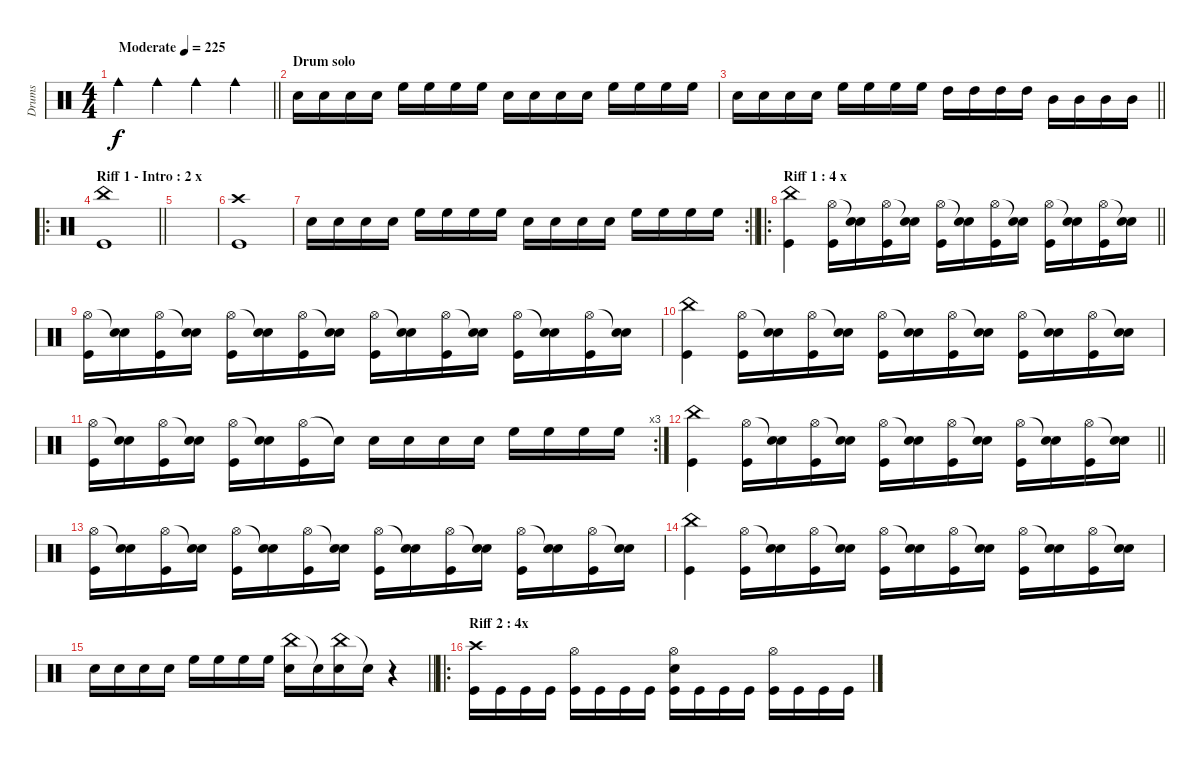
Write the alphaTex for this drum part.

\track ("Drums" "Drums") {instrument percussion}
\staff {score}
\articulation defaults
\ts (4 4)
\tempo (225 "Moderate")
\clef neutral
\barLineRight lightlight
\ks c "Cowbell medium (hit)".4{dy f} "Cowbell medium (hit)".4 "Cowbell medium (hit)".4 "Cowbell medium (hit)".4
|
\section ("" "Drum solo")
"Electric Snare (hit)".16 "Electric Snare (hit)".16 "Electric Snare (hit)".16 "Electric Snare (hit)".16 "High Floor Tom (hit)".16 "High Floor Tom (hit)".16 "High Floor Tom (hit)".16 "High Floor Tom (hit)".16 "Electric Snare (hit)".16 "Electric Snare (hit)".16 "Electric Snare (hit)".16 "Electric Snare (hit)".16 "High Floor Tom (hit)".16 "High Floor Tom (hit)".16 "High Floor Tom (hit)".16 "High Floor Tom (hit)".16 |
\barLineRight lightlight "Electric Snare (hit)".16 "Electric Snare (hit)".16 "Electric Snare (hit)".16 "Electric Snare (hit)".16 "High Floor Tom (hit)".16 "High Floor Tom (hit)".16 "High Floor Tom (hit)".16 "High Floor Tom (hit)".16 "High Tom (hit)".16 "High Tom (hit)".16 "High Tom (hit)".16 "High Tom (hit)".16 "Mid Tom (hit)".16 "Mid Tom (hit)".16 "Mid Tom (hit)".16 "Mid Tom (hit)".16
|
\ro
\section ("" "Riff 1 - Intro : 2 x")
\barLineRight lightlight
("China (hit)" "Kick (hit)").1 |
|
("Crash high (hit)" "Kick (hit)").1 |
\rc 2
\barLineRight lightlight "Electric Snare (hit)".16 "Electric Snare (hit)".16 "Electric Snare (hit)".16 "Electric Snare (hit)".16 "High Floor Tom (hit)".16 "High Floor Tom (hit)".16 "High Floor Tom (hit)".16 "High Floor Tom (hit)".16 "Electric Snare (hit)".16 "Electric Snare (hit)".16 "Electric Snare (hit)".16 "Electric Snare (hit)".16 "High Floor Tom (hit)".16 "High Floor Tom (hit)".16 "High Floor Tom (hit)".16 "High Floor Tom (hit)".16
|
\ro
\section ("" "Riff 1 : 4 x")
\barLineRight lightlight
("China (hit)" "Kick (hit)").4 ("Hi-Hat (open)" "Kick (hit)").16 ("Snare (hit)"{t} "Electric Snare (hit)").16 ("Hi-Hat (open)" "Kick (hit)").16 ("Snare (hit)"{t} "Electric Snare (hit)").16 ("Hi-Hat (open)" "Kick (hit)").16 ("Snare (hit)"{t} "Electric Snare (hit)").16 ("Hi-Hat (open)" "Kick (hit)").16 ("Snare (hit)"{t} "Electric Snare (hit)").16 ("Hi-Hat (open)" "Kick (hit)").16 ("Snare (hit)"{t} "Electric Snare (hit)").16 ("Hi-Hat (open)" "Kick (hit)").16 ("Snare (hit)"{t} "Electric Snare (hit)").16 |
("Hi-Hat (open)" "Kick (hit)").16 ("Snare (hit)"{t} "Electric Snare (hit)").16 ("Hi-Hat (open)" "Kick (hit)").16 ("Snare (hit)"{t} "Electric Snare (hit)").16 ("Hi-Hat (open)" "Kick (hit)").16 ("Snare (hit)"{t} "Electric Snare (hit)").16 ("Hi-Hat (open)" "Kick (hit)").16 ("Snare (hit)"{t} "Electric Snare (hit)").16 ("Hi-Hat (open)" "Kick (hit)").16 ("Snare (hit)"{t} "Electric Snare (hit)").16 ("Hi-Hat (open)" "Kick (hit)").16 ("Snare (hit)"{t} "Electric Snare (hit)").16 ("Hi-Hat (open)" "Kick (hit)").16 ("Snare (hit)"{t} "Electric Snare (hit)").16 ("Hi-Hat (open)" "Kick (hit)").16 ("Snare (hit)"{t} "Electric Snare (hit)").16 |
("China (hit)" "Kick (hit)").4 ("Hi-Hat (open)" "Kick (hit)").16 ("Snare (hit)"{t} "Electric Snare (hit)").16 ("Hi-Hat (open)" "Kick (hit)").16 ("Snare (hit)"{t} "Electric Snare (hit)").16 ("Hi-Hat (open)" "Kick (hit)").16 ("Snare (hit)"{t} "Electric Snare (hit)").16 ("Hi-Hat (open)" "Kick (hit)").16 ("Snare (hit)"{t} "Electric Snare (hit)").16 ("Hi-Hat (open)" "Kick (hit)").16 ("Snare (hit)"{t} "Electric Snare (hit)").16 ("Hi-Hat (open)" "Kick (hit)").16 ("Snare (hit)"{t} "Electric Snare (hit)").16 |
\rc 3
("Hi-Hat (open)" "Kick (hit)").16 ("Snare (hit)"{t} "Electric Snare (hit)").16 ("Hi-Hat (open)" "Kick (hit)").16 ("Snare (hit)"{t} "Electric Snare (hit)").16 ("Hi-Hat (open)" "Kick (hit)").16 ("Snare (hit)"{t} "Electric Snare (hit)").16 ("Hi-Hat (open)" "Kick (hit)").16 "Snare (hit)"{t}.16 "Electric Snare (hit)".16 "Electric Snare (hit)".16 "Electric Snare (hit)".16 "Electric Snare (hit)".16 "High Floor Tom (hit)".16 "High Floor Tom (hit)".16 "High Floor Tom (hit)".16 "High Floor Tom (hit)".16 |
\barLineRight lightlight
("China (hit)" "Kick (hit)").4 ("Hi-Hat (open)" "Kick (hit)").16 ("Snare (hit)"{t} "Electric Snare (hit)").16 ("Hi-Hat (open)" "Kick (hit)").16 ("Snare (hit)"{t} "Electric Snare (hit)").16 ("Hi-Hat (open)" "Kick (hit)").16 ("Snare (hit)"{t} "Electric Snare (hit)").16 ("Hi-Hat (open)" "Kick (hit)").16 ("Snare (hit)"{t} "Electric Snare (hit)").16 ("Hi-Hat (open)" "Kick (hit)").16 ("Snare (hit)"{t} "Electric Snare (hit)").16 ("Hi-Hat (open)" "Kick (hit)").16 ("Snare (hit)"{t} "Electric Snare (hit)").16 |
("Hi-Hat (open)" "Kick (hit)").16 ("Snare (hit)"{t} "Electric Snare (hit)").16 ("Hi-Hat (open)" "Kick (hit)").16 ("Snare (hit)"{t} "Electric Snare (hit)").16 ("Hi-Hat (open)" "Kick (hit)").16 ("Snare (hit)"{t} "Electric Snare (hit)").16 ("Hi-Hat (open)" "Kick (hit)").16 ("Snare (hit)"{t} "Electric Snare (hit)").16 ("Hi-Hat (open)" "Kick (hit)").16 ("Snare (hit)"{t} "Electric Snare (hit)").16 ("Hi-Hat (open)" "Kick (hit)").16 ("Snare (hit)"{t} "Electric Snare (hit)").16 ("Hi-Hat (open)" "Kick (hit)").16 ("Snare (hit)"{t} "Electric Snare (hit)").16 ("Hi-Hat (open)" "Kick (hit)").16 ("Snare (hit)"{t} "Electric Snare (hit)").16 |
("China (hit)" "Kick (hit)").4 ("Hi-Hat (open)" "Kick (hit)").16 ("Snare (hit)"{t} "Electric Snare (hit)").16 ("Hi-Hat (open)" "Kick (hit)").16 ("Snare (hit)"{t} "Electric Snare (hit)").16 ("Hi-Hat (open)" "Kick (hit)").16 ("Snare (hit)"{t} "Electric Snare (hit)").16 ("Hi-Hat (open)" "Kick (hit)").16 ("Snare (hit)"{t} "Electric Snare (hit)").16 ("Hi-Hat (open)" "Kick (hit)").16 ("Snare (hit)"{t} "Electric Snare (hit)").16 ("Hi-Hat (open)" "Kick (hit)").16 ("Snare (hit)"{t} "Electric Snare (hit)").16 |
\barLineRight lightlight "Electric Snare (hit)".16 "Electric Snare (hit)".16 "Electric Snare (hit)".16 "Electric Snare (hit)".16 "High Floor Tom (hit)".16 "High Floor Tom (hit)".16 "High Floor Tom (hit)".16 "High Floor Tom (hit)".16
("China (hit)" "Electric Snare (hit)").16 "Snare (hit)"{t}.16 ("China (hit)" "Electric Snare (hit)").16 "Snare (hit)"{t}.16 r.4 |
\ro
\section ("" "Riff 2 : 4x")
("Crash high (hit)" "Kick (hit)").16 "Kick (hit)".16 "Kick (hit)".16 "Kick (hit)".16 ("Hi-Hat (open)" "Kick (hit)").16 "Kick (hit)".16 "Kick (hit)".16 "Kick (hit)".16 ("Hi-Hat (open)" "Electric Snare (hit)" "Kick (hit)").16 "Kick (hit)".16 "Kick (hit)".16 "Kick (hit)".16 ("Hi-Hat (open)" "Kick (hit)").16 "Kick (hit)".16 "Kick (hit)".16 "Kick (hit)".16
